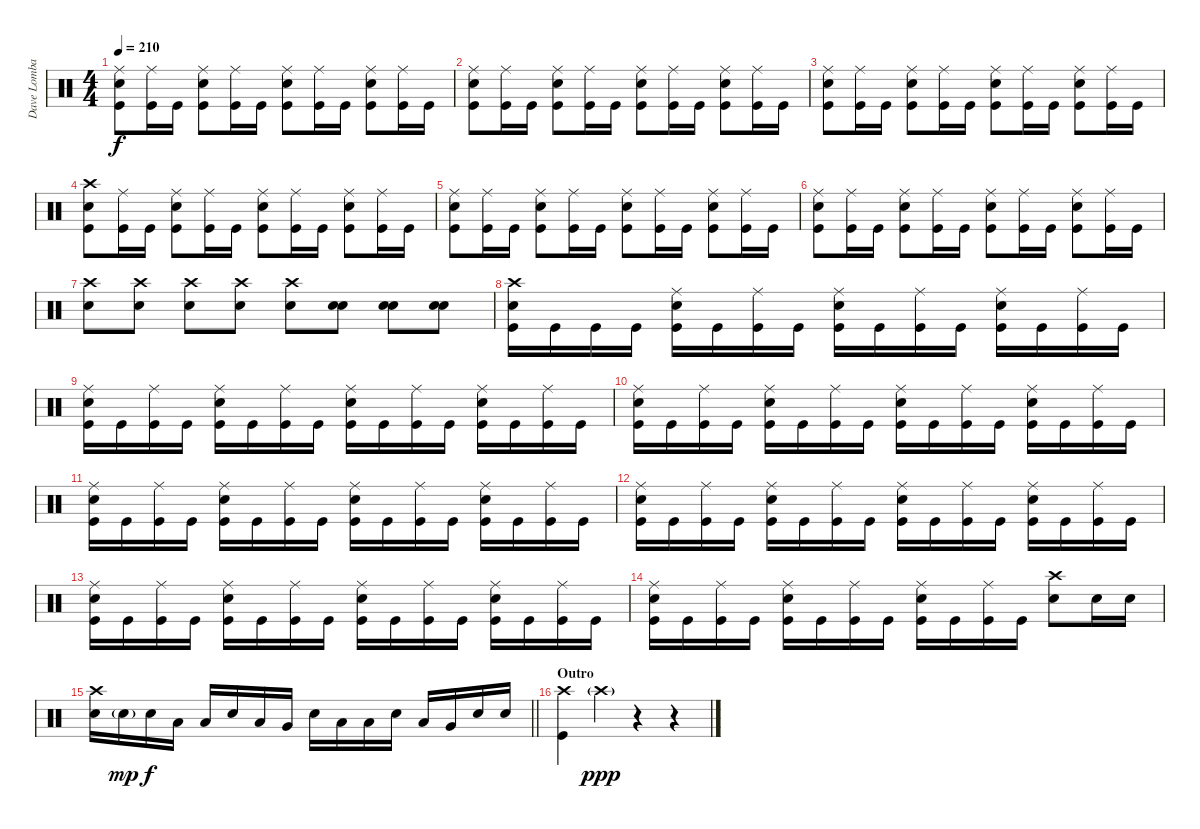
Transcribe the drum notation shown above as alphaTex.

\track ("Dave Lombardo" "Dave Lomba") {instrument percussion}
\staff {score}
\articulation defaults
\ts (4 4)
\tempo 210
\clef neutral
\ks c
("Ride (middle)" "Electric Snare (hit)" "Kick (hit)").8{dy f} ("Ride (middle)" "Kick (hit)").16 "Kick (hit)".16 ("Ride (middle)" "Electric Snare (hit)" "Kick (hit)").8 ("Ride (middle)" "Kick (hit)").16 "Kick (hit)".16 ("Ride (middle)" "Electric Snare (hit)" "Kick (hit)").8 ("Ride (middle)" "Kick (hit)").16 "Kick (hit)".16 ("Ride (middle)" "Electric Snare (hit)" "Kick (hit)").8 ("Ride (middle)" "Kick (hit)").16 "Kick (hit)".16 |
("Ride (middle)" "Electric Snare (hit)" "Kick (hit)").8 ("Ride (middle)" "Kick (hit)").16 "Kick (hit)".16 ("Ride (middle)" "Electric Snare (hit)" "Kick (hit)").8 ("Ride (middle)" "Kick (hit)").16 "Kick (hit)".16 ("Ride (middle)" "Electric Snare (hit)" "Kick (hit)").8 ("Ride (middle)" "Kick (hit)").16 "Kick (hit)".16 ("Ride (middle)" "Electric Snare (hit)" "Kick (hit)").8 ("Ride (middle)" "Kick (hit)").16 "Kick (hit)".16 |
("Ride (middle)" "Electric Snare (hit)" "Kick (hit)").8 ("Ride (middle)" "Kick (hit)").16 "Kick (hit)".16 ("Ride (middle)" "Electric Snare (hit)" "Kick (hit)").8 ("Ride (middle)" "Kick (hit)").16 "Kick (hit)".16 ("Ride (middle)" "Electric Snare (hit)" "Kick (hit)").8 ("Ride (middle)" "Kick (hit)").16 "Kick (hit)".16 ("Ride (middle)" "Electric Snare (hit)" "Kick (hit)").8 ("Ride (middle)" "Kick (hit)").16 "Kick (hit)".16 |
("Crash high (hit)" "Electric Snare (hit)" "Kick (hit)").8 ("Ride (middle)" "Kick (hit)").16 "Kick (hit)".16 ("Ride (middle)" "Electric Snare (hit)" "Kick (hit)").8 ("Ride (middle)" "Kick (hit)").16 "Kick (hit)".16 ("Ride (middle)" "Electric Snare (hit)" "Kick (hit)").8 ("Ride (middle)" "Kick (hit)").16 "Kick (hit)".16 ("Ride (middle)" "Electric Snare (hit)" "Kick (hit)").8 ("Ride (middle)" "Kick (hit)").16 "Kick (hit)".16 |
("Ride (middle)" "Electric Snare (hit)" "Kick (hit)").8 ("Ride (middle)" "Kick (hit)").16 "Kick (hit)".16 ("Ride (middle)" "Electric Snare (hit)" "Kick (hit)").8 ("Ride (middle)" "Kick (hit)").16 "Kick (hit)".16 ("Ride (middle)" "Electric Snare (hit)" "Kick (hit)").8 ("Ride (middle)" "Kick (hit)").16 "Kick (hit)".16 ("Ride (middle)" "Electric Snare (hit)" "Kick (hit)").8 ("Ride (middle)" "Kick (hit)").16 "Kick (hit)".16 |
("Ride (middle)" "Electric Snare (hit)" "Kick (hit)").8 ("Ride (middle)" "Kick (hit)").16 "Kick (hit)".16 ("Ride (middle)" "Electric Snare (hit)" "Kick (hit)").8 ("Ride (middle)" "Kick (hit)").16 "Kick (hit)".16 ("Ride (middle)" "Electric Snare (hit)" "Kick (hit)").8 ("Ride (middle)" "Kick (hit)").16 "Kick (hit)".16 ("Ride (middle)" "Electric Snare (hit)" "Kick (hit)").8 ("Ride (middle)" "Kick (hit)").16 "Kick (hit)".16 |
("Crash high (hit)" "Electric Snare (hit)").8 ("Crash high (hit)" "Electric Snare (hit)").8 ("Crash high (hit)" "Electric Snare (hit)").8 ("Crash high (hit)" "Electric Snare (hit)").8 ("Crash high (hit)" "Electric Snare (hit)").8 ("Snare (hit) 2" "Electric Snare (hit)").8 ("Snare (hit) 2" "Electric Snare (hit)").8 ("Snare (hit) 2" "Electric Snare (hit)").8 |
("Crash high (hit)" "Electric Snare (hit)" "Kick (hit)").16 "Kick (hit)".16 "Kick (hit)".16 "Kick (hit)".16 ("Ride (middle)" "Electric Snare (hit)" "Kick (hit)").16 "Kick (hit)".16 ("Ride (middle)" "Kick (hit)").16 "Kick (hit)".16 ("Ride (middle)" "Electric Snare (hit)" "Kick (hit)").16 "Kick (hit)".16 ("Ride (middle)" "Kick (hit)").16 "Kick (hit)".16 ("Ride (middle)" "Electric Snare (hit)" "Kick (hit)").16 "Kick (hit)".16 ("Ride (middle)" "Kick (hit)").16 "Kick (hit)".16 |
("Ride (middle)" "Electric Snare (hit)" "Kick (hit)").16 "Kick (hit)".16 ("Ride (middle)" "Kick (hit)").16 "Kick (hit)".16 ("Ride (middle)" "Electric Snare (hit)" "Kick (hit)").16 "Kick (hit)".16 ("Ride (middle)" "Kick (hit)").16 "Kick (hit)".16 ("Ride (middle)" "Electric Snare (hit)" "Kick (hit)").16 "Kick (hit)".16 ("Ride (middle)" "Kick (hit)").16 "Kick (hit)".16 ("Ride (middle)" "Electric Snare (hit)" "Kick (hit)").16 "Kick (hit)".16 ("Ride (middle)" "Kick (hit)").16 "Kick (hit)".16 |
("Ride (middle)" "Electric Snare (hit)" "Kick (hit)").16 "Kick (hit)".16 ("Ride (middle)" "Kick (hit)").16 "Kick (hit)".16 ("Ride (middle)" "Electric Snare (hit)" "Kick (hit)").16 "Kick (hit)".16 ("Ride (middle)" "Kick (hit)").16 "Kick (hit)".16 ("Ride (middle)" "Electric Snare (hit)" "Kick (hit)").16 "Kick (hit)".16 ("Ride (middle)" "Kick (hit)").16 "Kick (hit)".16 ("Ride (middle)" "Electric Snare (hit)" "Kick (hit)").16 "Kick (hit)".16 ("Ride (middle)" "Kick (hit)").16 "Kick (hit)".16 |
("Ride (middle)" "Electric Snare (hit)" "Kick (hit)").16 "Kick (hit)".16 ("Ride (middle)" "Kick (hit)").16 "Kick (hit)".16 ("Ride (middle)" "Electric Snare (hit)" "Kick (hit)").16 "Kick (hit)".16 ("Ride (middle)" "Kick (hit)").16 "Kick (hit)".16 ("Ride (middle)" "Electric Snare (hit)" "Kick (hit)").16 "Kick (hit)".16 ("Ride (middle)" "Kick (hit)").16 "Kick (hit)".16 ("Ride (middle)" "Electric Snare (hit)" "Kick (hit)").16 "Kick (hit)".16 ("Ride (middle)" "Kick (hit)").16 "Kick (hit)".16 |
("Ride (middle)" "Electric Snare (hit)" "Kick (hit)").16 "Kick (hit)".16 ("Ride (middle)" "Kick (hit)").16 "Kick (hit)".16 ("Ride (middle)" "Electric Snare (hit)" "Kick (hit)").16 "Kick (hit)".16 ("Ride (middle)" "Kick (hit)").16 "Kick (hit)".16 ("Ride (middle)" "Electric Snare (hit)" "Kick (hit)").16 "Kick (hit)".16 ("Ride (middle)" "Kick (hit)").16 "Kick (hit)".16 ("Ride (middle)" "Electric Snare (hit)" "Kick (hit)").16 "Kick (hit)".16 ("Ride (middle)" "Kick (hit)").16 "Kick (hit)".16 |
("Ride (middle)" "Electric Snare (hit)" "Kick (hit)").16 "Kick (hit)".16 ("Ride (middle)" "Kick (hit)").16 "Kick (hit)".16 ("Ride (middle)" "Electric Snare (hit)" "Kick (hit)").16 "Kick (hit)".16 ("Ride (middle)" "Kick (hit)").16 "Kick (hit)".16 ("Ride (middle)" "Electric Snare (hit)" "Kick (hit)").16 "Kick (hit)".16 ("Ride (middle)" "Kick (hit)").16 "Kick (hit)".16 ("Ride (middle)" "Electric Snare (hit)" "Kick (hit)").16 "Kick (hit)".16 ("Ride (middle)" "Kick (hit)").16 "Kick (hit)".16 |
("Ride (middle)" "Electric Snare (hit)" "Kick (hit)").16 "Kick (hit)".16 ("Ride (middle)" "Kick (hit)").16 "Kick (hit)".16 ("Ride (middle)" "Electric Snare (hit)" "Kick (hit)").16 "Kick (hit)".16 ("Ride (middle)" "Kick (hit)").16 "Kick (hit)".16 ("Ride (middle)" "Electric Snare (hit)" "Kick (hit)").16 "Kick (hit)".16 ("Ride (middle)" "Kick (hit)").16 "Kick (hit)".16 ("Crash high (hit)" "Electric Snare (hit)").8 "Electric Snare (hit)".16 "Electric Snare (hit)".16 |
\barLineRight lightlight
("Crash high (hit)" "Electric Snare (hit)").16 "Electric Snare (hit)"{g}.16{dy mp} "Electric Snare (hit)".16{dy f} "Low Tom (hit)".16 "Low Tom (hit)".16 "Electric Snare (hit)".16 "Low Tom (hit)".16 "Very Low Tom (hit)".16 "Electric Snare (hit)".16 "Low Tom (hit)".16 "Low Tom (hit)".16 "Electric Snare (hit)".16 "Low Tom (hit)".16 "Very Low Tom (hit)".16 "Electric Snare (hit)".16 "Electric Snare (hit)".16 |
\section ("" "Outro")
("Crash high (hit)" "Kick (hit)").4 "Crash high (hit)"{g}.4{dy ppp} r.4 r.4
